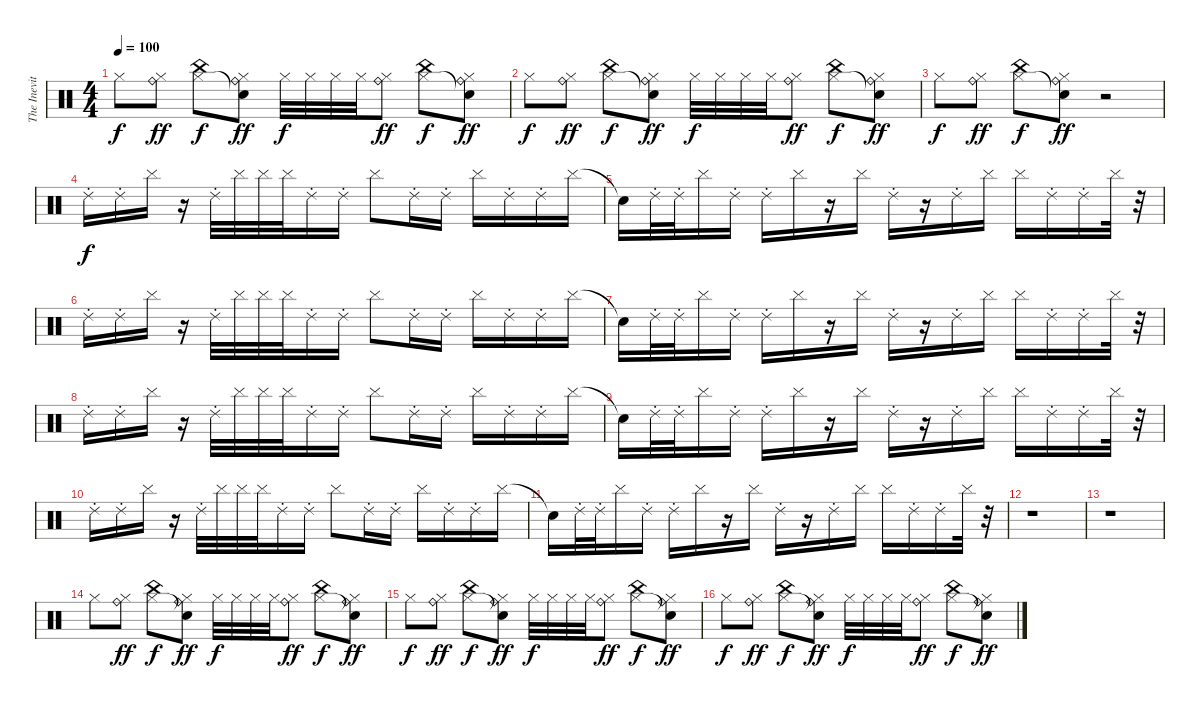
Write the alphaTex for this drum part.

\track ("The Inevitable" "The Inevit") {instrument percussion}
\staff {score}
\articulation defaults
\ts (4 4)
\tempo 100
\clef neutral
\ks c "Hi-Hat (closed)".8{dy f}
("Ride (bell)" "Hi-Hat (closed)").8{dy ff} ("China (hit)" "Hi-Hat (closed)").8{dy f} ("Ride (bell)" "Snare (hit)"{t} "Hi-Hat (closed)").8{dy ff} "Hi-Hat (closed)".32{dy f} "Hi-Hat (closed)".32 "Hi-Hat (closed)".32 "Hi-Hat (closed)".32 ("Ride (bell)" "Hi-Hat (closed)").8{dy ff} ("China (hit)" "Hi-Hat (closed)").8{dy f} ("Ride (bell)" "Snare (hit)"{t} "Hi-Hat (closed)").8{dy ff} |
"Hi-Hat (closed)".8{dy f} ("Ride (bell)" "Hi-Hat (closed)").8{dy ff} ("China (hit)" "Hi-Hat (closed)").8{dy f} ("Ride (bell)" "Snare (hit)"{t} "Hi-Hat (closed)").8{dy ff} "Hi-Hat (closed)".32{dy f} "Hi-Hat (closed)".32 "Hi-Hat (closed)".32 "Hi-Hat (closed)".32 ("Ride (bell)" "Hi-Hat (closed)").8{dy ff} ("China (hit)" "Hi-Hat (closed)").8{dy f} ("Ride (bell)" "Snare (hit)"{t} "Hi-Hat (closed)").8{dy ff} |
"Hi-Hat (closed)".8{dy f} ("Ride (bell)" "Hi-Hat (closed)").8{dy ff} ("China (hit)" "Hi-Hat (closed)").8{dy f} ("Ride (bell)" "Snare (hit)"{t} "Hi-Hat (closed)").8{dy ff} r.2 |
"Ride (choke) 2".16{dy f} "Ride (choke) 2".16 "Cymbal (hit)".16 r.16 "Ride (choke) 2".32 "Cymbal (hit)".32 "Cymbal (hit)".32 "Cymbal (hit)".32 "Ride (choke) 2".16 "Ride (choke) 2".16 "Cymbal (hit)".8 "Ride (choke) 2".16 "Ride (choke) 2".16 "Cymbal (hit)".16 "Ride (choke) 2".16 "Ride (choke) 2".16 "Cymbal (hit)".16 |
"Snare (hit)"{t}.16 "Ride (choke) 2".32 "Ride (choke) 2".32 "Cymbal (hit)".16 "Ride (choke) 2".16 "Ride (choke) 2".16 "Cymbal (hit)".16 r.16 "Cymbal (hit)".16 "Ride (choke) 2".16 r.16 "Ride (choke) 2".16 "Cymbal (hit)".16 "Cymbal (hit)".16 "Ride (choke) 2".16 "Ride (choke) 2".16 "Cymbal (hit)".32 r.32 |
"Ride (choke) 2".16 "Ride (choke) 2".16 "Cymbal (hit)".16 r.16 "Ride (choke) 2".32 "Cymbal (hit)".32 "Cymbal (hit)".32 "Cymbal (hit)".32 "Ride (choke) 2".16 "Ride (choke) 2".16 "Cymbal (hit)".8 "Ride (choke) 2".16 "Ride (choke) 2".16 "Cymbal (hit)".16 "Ride (choke) 2".16 "Ride (choke) 2".16 "Cymbal (hit)".16 |
"Snare (hit)"{t}.16 "Ride (choke) 2".32 "Ride (choke) 2".32 "Cymbal (hit)".16 "Ride (choke) 2".16 "Ride (choke) 2".16 "Cymbal (hit)".16 r.16 "Cymbal (hit)".16 "Ride (choke) 2".16 r.16 "Ride (choke) 2".16 "Cymbal (hit)".16 "Cymbal (hit)".16 "Ride (choke) 2".16 "Ride (choke) 2".16 "Cymbal (hit)".32 r.32 |
"Ride (choke) 2".16 "Ride (choke) 2".16 "Cymbal (hit)".16 r.16 "Ride (choke) 2".32 "Cymbal (hit)".32 "Cymbal (hit)".32 "Cymbal (hit)".32 "Ride (choke) 2".16 "Ride (choke) 2".16 "Cymbal (hit)".8 "Ride (choke) 2".16 "Ride (choke) 2".16 "Cymbal (hit)".16 "Ride (choke) 2".16 "Ride (choke) 2".16 "Cymbal (hit)".16 |
"Snare (hit)"{t}.16 "Ride (choke) 2".32 "Ride (choke) 2".32 "Cymbal (hit)".16 "Ride (choke) 2".16 "Ride (choke) 2".16 "Cymbal (hit)".16 r.16 "Cymbal (hit)".16 "Ride (choke) 2".16 r.16 "Ride (choke) 2".16 "Cymbal (hit)".16 "Cymbal (hit)".16 "Ride (choke) 2".16 "Ride (choke) 2".16 "Cymbal (hit)".32 r.32 |
"Ride (choke) 2".16 "Ride (choke) 2".16 "Cymbal (hit)".16 r.16 "Ride (choke) 2".32 "Cymbal (hit)".32 "Cymbal (hit)".32 "Cymbal (hit)".32 "Ride (choke) 2".16 "Ride (choke) 2".16 "Cymbal (hit)".8 "Ride (choke) 2".16 "Ride (choke) 2".16 "Cymbal (hit)".16 "Ride (choke) 2".16 "Ride (choke) 2".16 "Cymbal (hit)".16 |
"Snare (hit)"{t}.16 "Ride (choke) 2".32 "Ride (choke) 2".32 "Cymbal (hit)".16 "Ride (choke) 2".16 "Ride (choke) 2".16 "Cymbal (hit)".16 r.16 "Cymbal (hit)".16 "Ride (choke) 2".16 r.16 "Ride (choke) 2".16 "Cymbal (hit)".16 "Cymbal (hit)".16 "Ride (choke) 2".16 "Ride (choke) 2".16 "Cymbal (hit)".32 r.32 |
r.1 |
r.1 |
"Hi-Hat (closed)".8 ("Ride (bell)" "Hi-Hat (closed)").8{dy ff} ("China (hit)" "Hi-Hat (closed)").8{dy f} ("Ride (bell)" "Snare (hit)"{t} "Hi-Hat (closed)").8{dy ff} "Hi-Hat (closed)".32{dy f} "Hi-Hat (closed)".32 "Hi-Hat (closed)".32 "Hi-Hat (closed)".32 ("Ride (bell)" "Hi-Hat (closed)").8{dy ff} ("China (hit)" "Hi-Hat (closed)").8{dy f} ("Ride (bell)" "Snare (hit)"{t} "Hi-Hat (closed)").8{dy ff} |
"Hi-Hat (closed)".8{dy f} ("Ride (bell)" "Hi-Hat (closed)").8{dy ff} ("China (hit)" "Hi-Hat (closed)").8{dy f} ("Ride (bell)" "Snare (hit)"{t} "Hi-Hat (closed)").8{dy ff} "Hi-Hat (closed)".32{dy f} "Hi-Hat (closed)".32 "Hi-Hat (closed)".32 "Hi-Hat (closed)".32 ("Ride (bell)" "Hi-Hat (closed)").8{dy ff} ("China (hit)" "Hi-Hat (closed)").8{dy f} ("Ride (bell)" "Snare (hit)"{t} "Hi-Hat (closed)").8{dy ff} |
"Hi-Hat (closed)".8{dy f} ("Ride (bell)" "Hi-Hat (closed)").8{dy ff} ("China (hit)" "Hi-Hat (closed)").8{dy f} ("Ride (bell)" "Snare (hit)"{t} "Hi-Hat (closed)").8{dy ff} "Hi-Hat (closed)".32{dy f} "Hi-Hat (closed)".32 "Hi-Hat (closed)".32 "Hi-Hat (closed)".32 ("Ride (bell)" "Hi-Hat (closed)").8{dy ff} ("China (hit)" "Hi-Hat (closed)").8{dy f} ("Ride (bell)" "Snare (hit)"{t} "Hi-Hat (closed)").8{dy ff}
